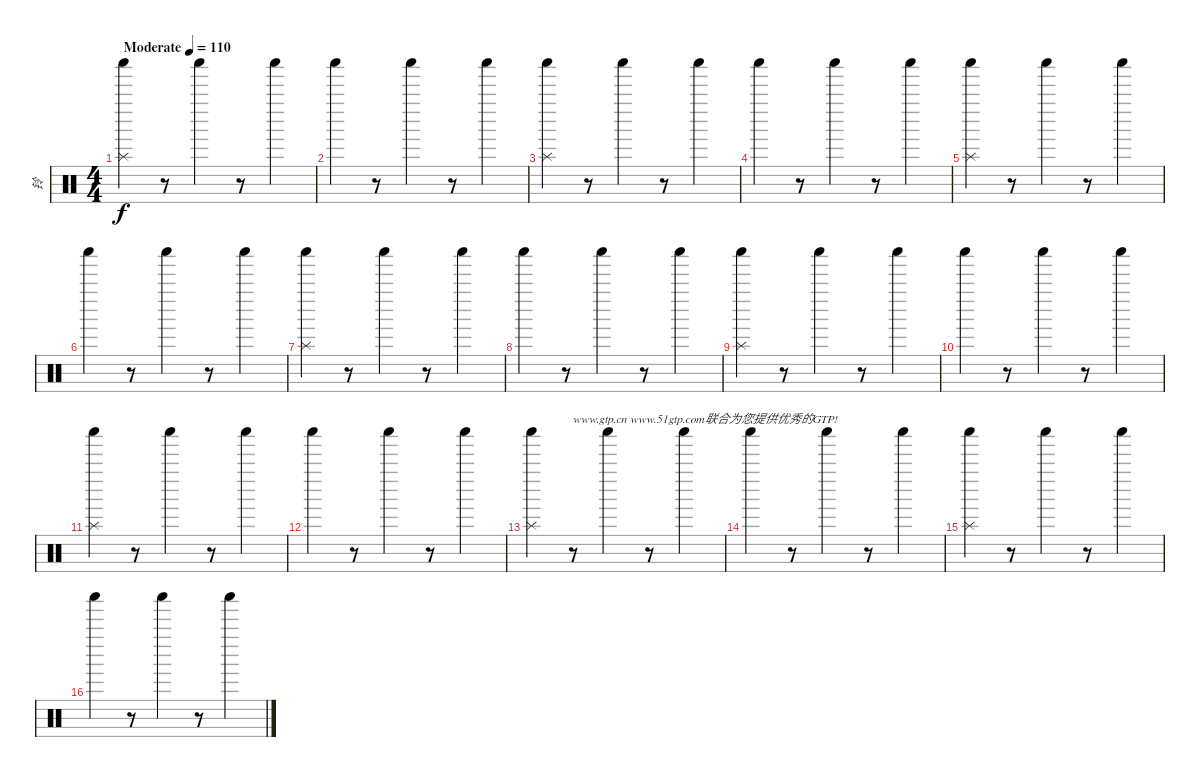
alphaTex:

\track ("铃" "铃") {instrument percussion}
\staff {score}
\articulation defaults
\ts (4 4)
\tempo (110 "Moderate")
\clef neutral
\ks c
("Shaker (hit)" "Splash (hit)").4{dy f} r.8 "Shaker (hit)".4 r.8 "Shaker (hit)".4 |
"Shaker (hit)".4 r.8 "Shaker (hit)".4 r.8 "Shaker (hit)".4 |
("Shaker (hit)" "Splash (hit)").4 r.8 "Shaker (hit)".4 r.8 "Shaker (hit)".4 |
"Shaker (hit)".4 r.8 "Shaker (hit)".4 r.8 "Shaker (hit)".4 |
("Shaker (hit)" "Splash (hit)").4 r.8 "Shaker (hit)".4 r.8 "Shaker (hit)".4 |
"Shaker (hit)".4 r.8 "Shaker (hit)".4 r.8 "Shaker (hit)".4 |
("Shaker (hit)" "Splash (hit)").4 r.8 "Shaker (hit)".4 r.8 "Shaker (hit)".4 |
"Shaker (hit)".4 r.8 "Shaker (hit)".4 r.8 "Shaker (hit)".4 |
("Shaker (hit)" "Splash (hit)").4 r.8 "Shaker (hit)".4 r.8 "Shaker (hit)".4 |
"Shaker (hit)".4 r.8 "Shaker (hit)".4 r.8 "Shaker (hit)".4 |
("Shaker (hit)" "Splash (hit)").4 r.8 "Shaker (hit)".4 r.8 "Shaker (hit)".4 |
"Shaker (hit)".4 r.8 "Shaker (hit)".4 r.8 "Shaker (hit)".4 |
("Shaker (hit)" "Splash (hit)").4 r.8{txt "www.gtp.cn www.51gtp.com联合为您提供优秀的GTP!"} "Shaker (hit)".4 r.8 "Shaker (hit)".4 |
"Shaker (hit)".4 r.8 "Shaker (hit)".4 r.8 "Shaker (hit)".4 |
("Shaker (hit)" "Splash (hit)").4 r.8 "Shaker (hit)".4 r.8 "Shaker (hit)".4 |
"Shaker (hit)".4 r.8 "Shaker (hit)".4 r.8 "Shaker (hit)".4
